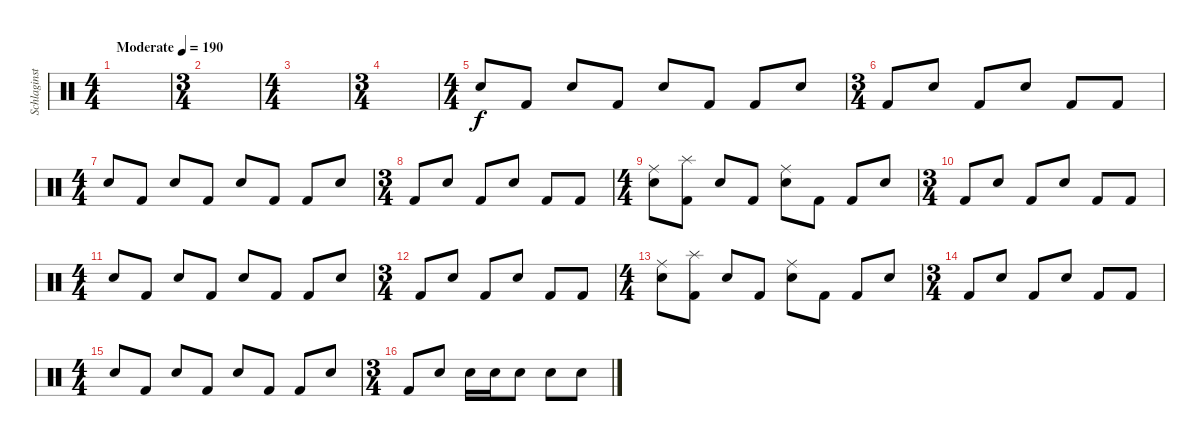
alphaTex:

\track ("Schlaginstrumente - Auswahl" "Schlaginst") {instrument percussion}
\staff {score}
\articulation defaults
\ts (4 4)
\tempo (190 "Moderate")
\clef neutral
\ks c
|
\ts (3 4)
|
\ts (4 4)
|
\ts (3 4)
|
\ts (4 4)
"Electric Snare (hit)".8 "Kick (hit) 2".8 "Electric Snare (hit)".8 "Kick (hit) 2".8 "Electric Snare (hit)".8 "Kick (hit) 2".8 "Kick (hit) 2".8 "Electric Snare (hit)".8 |
\ts (3 4)
"Kick (hit) 2".8 "Electric Snare (hit)".8 "Kick (hit) 2".8 "Electric Snare (hit)".8 "Kick (hit) 2".8 "Kick (hit) 2".8 |
\ts (4 4)
"Electric Snare (hit)".8 "Kick (hit) 2".8 "Electric Snare (hit)".8 "Kick (hit) 2".8 "Electric Snare (hit)".8 "Kick (hit) 2".8 "Kick (hit) 2".8 "Electric Snare (hit)".8 |
\ts (3 4)
"Kick (hit) 2".8 "Electric Snare (hit)".8 "Kick (hit) 2".8 "Electric Snare (hit)".8 "Kick (hit) 2".8 "Kick (hit) 2".8 |
\ts (4 4)
("Ride (middle)" "Electric Snare (hit)").8 ("Splash (hit)" "Kick (hit) 2").8 "Electric Snare (hit)".8 "Kick (hit) 2".8 ("Ride (middle)" "Electric Snare (hit)").8 "Kick (hit) 2".8 "Kick (hit) 2".8 "Electric Snare (hit)".8 |
\ts (3 4)
"Kick (hit) 2".8 "Electric Snare (hit)".8 "Kick (hit) 2".8 "Electric Snare (hit)".8 "Kick (hit) 2".8 "Kick (hit) 2".8 |
\ts (4 4)
"Electric Snare (hit)".8 "Kick (hit) 2".8 "Electric Snare (hit)".8 "Kick (hit) 2".8 "Electric Snare (hit)".8 "Kick (hit) 2".8 "Kick (hit) 2".8 "Electric Snare (hit)".8 |
\ts (3 4)
"Kick (hit) 2".8 "Electric Snare (hit)".8 "Kick (hit) 2".8 "Electric Snare (hit)".8 "Kick (hit) 2".8 "Kick (hit) 2".8 |
\ts (4 4)
("Ride (middle)" "Electric Snare (hit)").8 ("Splash (hit)" "Kick (hit) 2").8 "Electric Snare (hit)".8 "Kick (hit) 2".8 ("Ride (middle)" "Electric Snare (hit)").8 "Kick (hit) 2".8 "Kick (hit) 2".8 "Electric Snare (hit)".8 |
\ts (3 4)
"Kick (hit) 2".8 "Electric Snare (hit)".8 "Kick (hit) 2".8 "Electric Snare (hit)".8 "Kick (hit) 2".8 "Kick (hit) 2".8 |
\ts (4 4)
"Electric Snare (hit)".8 "Kick (hit) 2".8 "Electric Snare (hit)".8 "Kick (hit) 2".8 "Electric Snare (hit)".8 "Kick (hit) 2".8 "Kick (hit) 2".8 "Electric Snare (hit)".8 |
\ts (3 4)
"Kick (hit) 2".8 "Electric Snare (hit)".8 "Electric Snare (hit)".16 "Electric Snare (hit)".16 "Electric Snare (hit)".8 "Electric Snare (hit)".8 "Electric Snare (hit)".8
